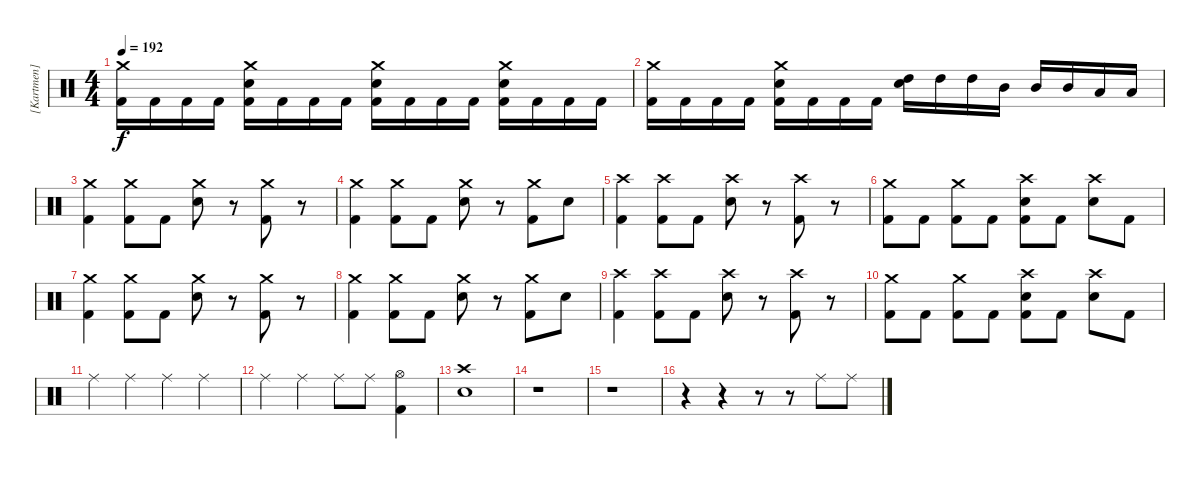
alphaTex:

\track ("[Kartmen] - Drums" "[Kartmen] ") {instrument percussion}
\staff {score}
\articulation defaults
\ts (4 4)
\tempo 192
\clef neutral
\ks c
("Crash medium (hit)" "Kick (hit) 2").16{dy f} "Kick (hit) 2".16 "Kick (hit) 2".16 "Kick (hit) 2".16 ("Crash medium (hit)" "Kick (hit) 2" "Snare (hit) 2").16 "Kick (hit) 2".16 "Kick (hit) 2".16 "Kick (hit) 2".16 ("Crash medium (hit)" "Kick (hit) 2" "Snare (hit) 2").16 "Kick (hit) 2".16 "Kick (hit) 2".16 "Kick (hit) 2".16 ("Crash medium (hit)" "Kick (hit) 2" "Snare (hit) 2").16 "Kick (hit) 2".16 "Kick (hit) 2".16 "Kick (hit) 2".16 |
("Crash medium (hit)" "Kick (hit) 2").16 "Kick (hit) 2".16 "Kick (hit) 2".16 "Kick (hit) 2".16 ("Crash medium (hit)" "Kick (hit) 2" "Snare (hit) 2").16 "Kick (hit) 2".16 "Kick (hit) 2".16 "Kick (hit) 2".16 ("High Tom (hit)" "Snare (hit) 2").16 "High Tom (hit)".16 "High Tom (hit)".16 "Mid Tom (hit)".16 "Mid Tom (hit)".16 "Mid Tom (hit)".16 "Low Tom (hit)".16 "Low Tom (hit)".16 |
("Crash medium (hit)" "Kick (hit) 2").4 ("Crash medium (hit)" "Kick (hit) 2").8 "Kick (hit) 2".8 ("Crash medium (hit)" "Snare (hit) 2").8 r.8 ("Crash medium (hit)" "Kick (hit) 2").8 r.8 |
("Crash medium (hit)" "Kick (hit) 2").4 ("Crash medium (hit)" "Kick (hit) 2").8 "Kick (hit) 2".8 ("Crash medium (hit)" "Snare (hit) 2").8 r.8 ("Crash medium (hit)" "Kick (hit) 2").8 "Snare (hit) 2"{tr (38 16)}.8 |
("Crash high (hit)" "Kick (hit) 2").4 ("Crash high (hit)" "Kick (hit) 2").8 "Kick (hit) 2".8 ("Crash high (hit)" "Snare (hit) 2").8 r.8 ("Crash high (hit)" "Kick (hit) 2").8 r.8 |
("Crash medium (hit)" "Kick (hit) 2").8 "Kick (hit) 2".8 ("Crash medium (hit)" "Kick (hit) 2").8 "Kick (hit) 2".8 ("Crash high (hit)" "Kick (hit) 2" "Snare (hit) 2").8 "Kick (hit) 2".8 ("Crash high (hit)" "Snare (hit) 2").8 "Kick (hit) 2".8 |
("Crash medium (hit)" "Kick (hit) 2").4 ("Crash medium (hit)" "Kick (hit) 2").8 "Kick (hit) 2".8 ("Crash medium (hit)" "Snare (hit) 2").8 r.8 ("Crash medium (hit)" "Kick (hit) 2").8 r.8 |
("Crash medium (hit)" "Kick (hit) 2").4 ("Crash medium (hit)" "Kick (hit) 2").8 "Kick (hit) 2".8 ("Crash medium (hit)" "Snare (hit) 2").8 r.8 ("Crash medium (hit)" "Kick (hit) 2").8 "Snare (hit) 2"{tr (38 16)}.8 |
("Crash high (hit)" "Kick (hit) 2").4 ("Crash high (hit)" "Kick (hit) 2").8 "Kick (hit) 2".8 ("Crash high (hit)" "Snare (hit) 2").8 r.8 ("Crash high (hit)" "Kick (hit) 2").8 r.8 |
("Crash medium (hit)" "Kick (hit) 2").8 "Kick (hit) 2".8 ("Crash medium (hit)" "Kick (hit) 2").8 "Kick (hit) 2".8 ("Crash high (hit)" "Kick (hit) 2" "Snare (hit) 2").8 "Kick (hit) 2".8 ("Crash high (hit)" "Snare (hit) 2").8 "Kick (hit) 2".8 |
"Ride (middle)".4 "Ride (middle)".4 "Ride (middle)".4 "Ride (middle)".4 |
"Ride (middle)".4 "Ride (middle)".4 "Ride (middle)".8 "Ride (middle)".8 ("Hi-Hat (open)" "Kick (hit) 2").4 |
("Crash high (hit)" "Snare (hit) 2").1 |
r.1 |
r.1 |
r.4 r.4 r.8 r.8 "Ride (middle)".8 "Ride (middle)".8
